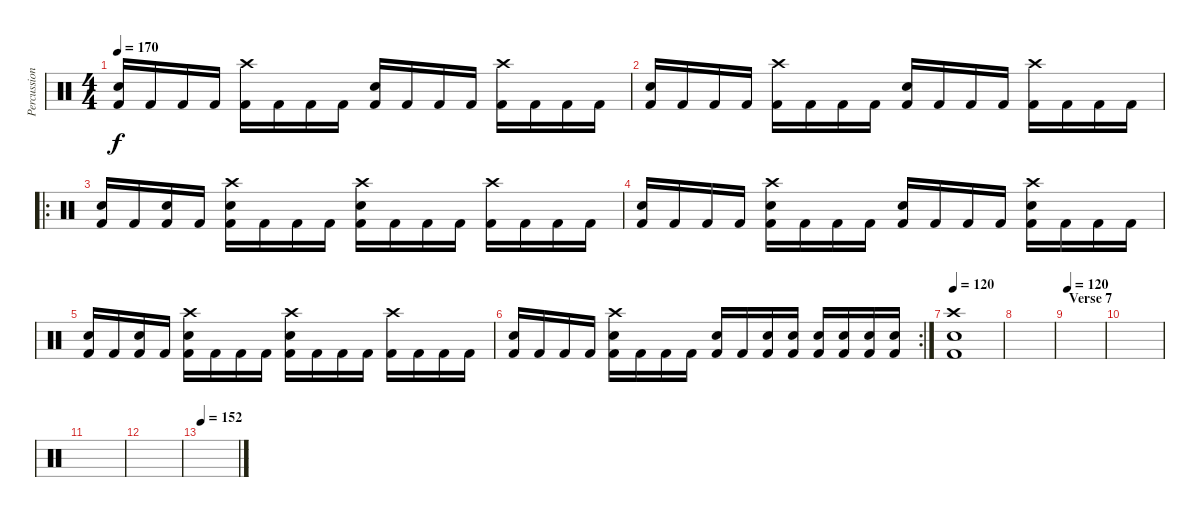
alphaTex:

\track ("Percussion" "Percussion") {instrument percussion}
\staff {score}
\articulation defaults
\ts (4 4)
\tempo 170
\clef neutral
\ks c
("Electric Snare (hit)" "Kick (hit) 2").16{dy f} "Kick (hit) 2".16 "Kick (hit) 2".16 "Kick (hit) 2".16 ("Crash high (hit)" "Kick (hit) 2").16 "Kick (hit) 2".16 "Kick (hit) 2".16 "Kick (hit) 2".16 ("Electric Snare (hit)" "Kick (hit) 2").16 "Kick (hit) 2".16 "Kick (hit) 2".16 "Kick (hit) 2".16 ("Crash high (hit)" "Kick (hit) 2").16 "Kick (hit) 2".16 "Kick (hit) 2".16 "Kick (hit) 2".16 |
("Electric Snare (hit)" "Kick (hit) 2").16 "Kick (hit) 2".16 "Kick (hit) 2".16 "Kick (hit) 2".16 ("Crash high (hit)" "Kick (hit) 2").16 "Kick (hit) 2".16 "Kick (hit) 2".16 "Kick (hit) 2".16 ("Electric Snare (hit)" "Kick (hit) 2").16 "Kick (hit) 2".16 "Kick (hit) 2".16 "Kick (hit) 2".16 ("Crash high (hit)" "Kick (hit) 2").16 "Kick (hit) 2".16 "Kick (hit) 2".16 "Kick (hit) 2".16 |
\ro
("Electric Snare (hit)" "Kick (hit) 2").16 "Kick (hit) 2".16 ("Electric Snare (hit)" "Kick (hit) 2").16 "Kick (hit) 2".16 ("Crash high (hit)" "Electric Snare (hit)" "Kick (hit) 2").16 "Kick (hit) 2".16 "Kick (hit) 2".16 "Kick (hit) 2".16 ("Crash high (hit)" "Electric Snare (hit)" "Kick (hit) 2").16 "Kick (hit) 2".16 "Kick (hit) 2".16 "Kick (hit) 2".16 ("Crash high (hit)" "Kick (hit) 2").16 "Kick (hit) 2".16 "Kick (hit) 2".16 "Kick (hit) 2".16 |
("Electric Snare (hit)" "Kick (hit) 2").16 "Kick (hit) 2".16 "Kick (hit) 2".16 "Kick (hit) 2".16 ("Crash high (hit)" "Electric Snare (hit)" "Kick (hit) 2").16 "Kick (hit) 2".16 "Kick (hit) 2".16 "Kick (hit) 2".16 ("Electric Snare (hit)" "Kick (hit) 2").16 "Kick (hit) 2".16 "Kick (hit) 2".16 "Kick (hit) 2".16 ("Crash high (hit)" "Electric Snare (hit)" "Kick (hit) 2").16 "Kick (hit) 2".16 "Kick (hit) 2".16 "Kick (hit) 2".16 |
("Electric Snare (hit)" "Kick (hit) 2").16 "Kick (hit) 2".16 ("Electric Snare (hit)" "Kick (hit) 2").16 "Kick (hit) 2".16 ("Crash high (hit)" "Electric Snare (hit)" "Kick (hit) 2").16 "Kick (hit) 2".16 "Kick (hit) 2".16 "Kick (hit) 2".16 ("Crash high (hit)" "Electric Snare (hit)" "Kick (hit) 2").16 "Kick (hit) 2".16 "Kick (hit) 2".16 "Kick (hit) 2".16 ("Crash high (hit)" "Kick (hit) 2").16 "Kick (hit) 2".16 "Kick (hit) 2".16 "Kick (hit) 2".16 |
\rc 2
("Electric Snare (hit)" "Kick (hit) 2").16 "Kick (hit) 2".16 "Kick (hit) 2".16 "Kick (hit) 2".16 ("Crash high (hit)" "Electric Snare (hit)" "Kick (hit) 2").16 "Kick (hit) 2".16 "Kick (hit) 2".16 "Kick (hit) 2".16 ("Electric Snare (hit)" "Kick (hit) 2").16 "Kick (hit) 2".16 ("Electric Snare (hit)" "Kick (hit) 2").16 ("Electric Snare (hit)" "Kick (hit) 2").16 ("Electric Snare (hit)" "Kick (hit) 2").16 ("Electric Snare (hit)" "Kick (hit) 2").16 ("Electric Snare (hit)" "Kick (hit) 2").16 ("Electric Snare (hit)" "Kick (hit) 2").16 |
\tempo 120
("Crash high (hit)" "Electric Snare (hit)" "Kick (hit) 2").1 |
|
\section ("" "Verse 7")
\tempo 120
|
|
|
|
\tempo 130
\tempo 152
